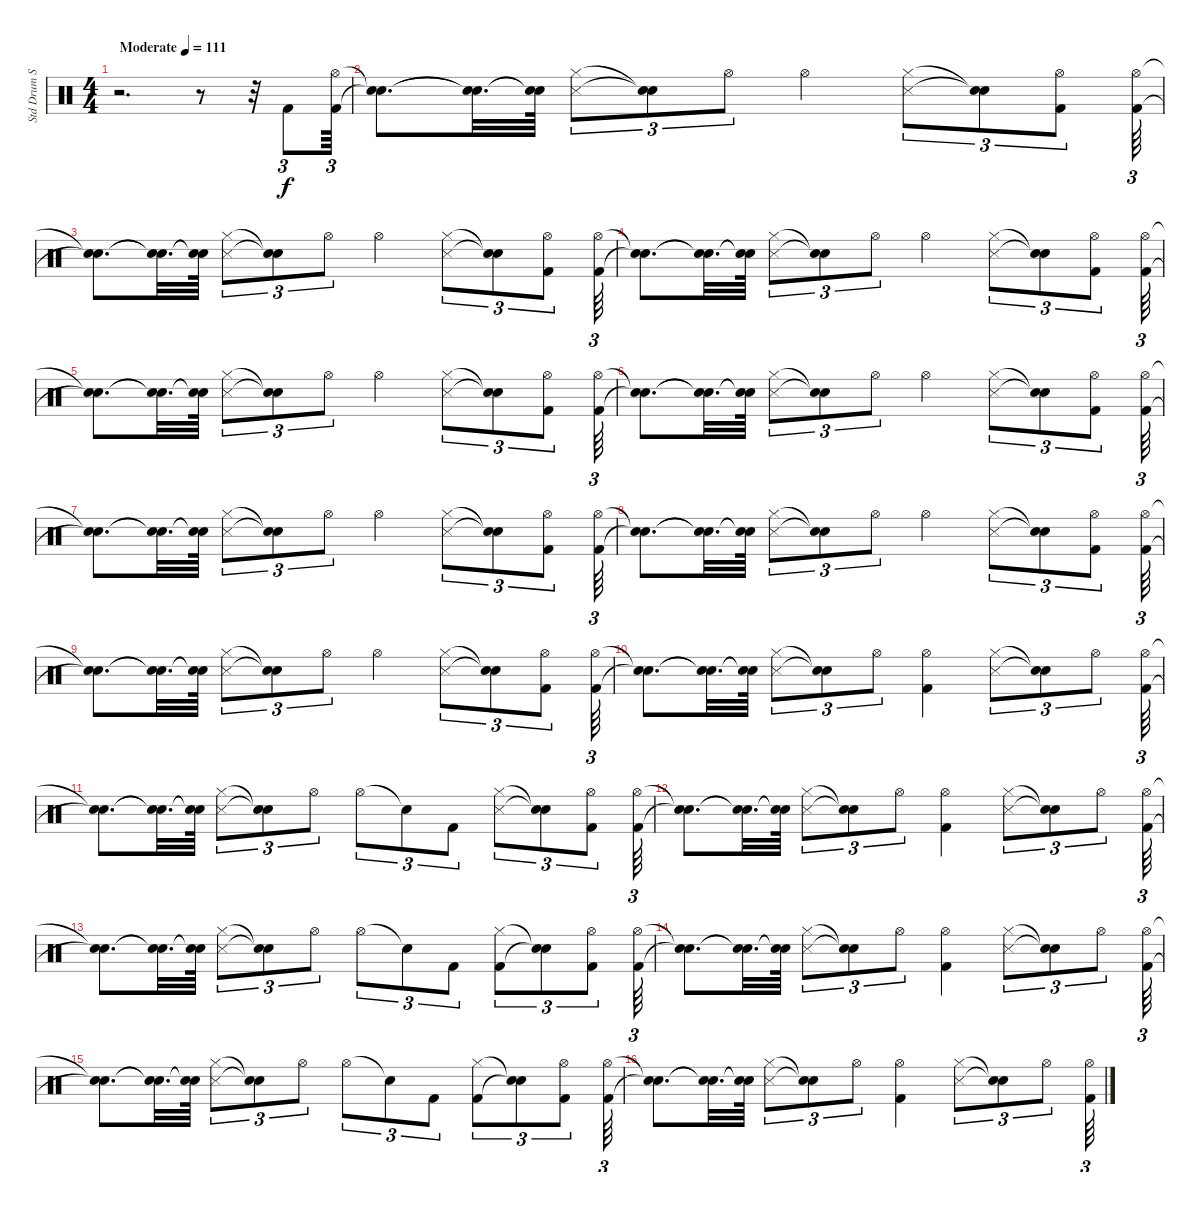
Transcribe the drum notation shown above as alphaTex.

\track ("Std Drum Set" "Std Drum S") {solo instrument percussion}
\staff {score}
\articulation defaults
\ts (4 4)
\tempo (111 "Moderate")
\clef neutral
\ks c
r.2{d dy f} r.8 r.32 "Kick (hit) 2".8{tu (3 2)} ("Kick (hit) 2" "Hi-Hat (open)").64{tu (3 2)} |
("Snare (hit)"{t} "Snare (hit)"{t}).8{d} ("Snare (hit)"{t} "Snare (hit)"{t}).32{d} ("Snare (hit)"{t} "Snare (hit)"{t}).64 ("Snare (side stick) 3" "Hi-Hat (closed)").8{tu (3 2)} ("Snare (hit)"{t} "Snare (hit)"{t}).8{tu (3 2)} "Hi-Hat (open)".8{tu (3 2)} "Hi-Hat (open)".4 ("Snare (side stick) 3" "Hi-Hat (closed)").8{tu (3 2)} ("Snare (hit)"{t} "Snare (hit)"{t}).8{tu (3 2)} ("Kick (hit) 2" "Hi-Hat (open)").8{tu (3 2)} ("Kick (hit) 2" "Hi-Hat (open)").64{tu (3 2)} |
("Snare (hit)"{t} "Snare (hit)"{t}).8{d} ("Snare (hit)"{t} "Snare (hit)"{t}).32{d} ("Snare (hit)"{t} "Snare (hit)"{t}).64 ("Snare (side stick) 3" "Hi-Hat (closed)").8{tu (3 2)} ("Snare (hit)"{t} "Snare (hit)"{t}).8{tu (3 2)} "Hi-Hat (open)".8{tu (3 2)} "Hi-Hat (open)".4 ("Snare (side stick) 3" "Hi-Hat (closed)").8{tu (3 2)} ("Snare (hit)"{t} "Snare (hit)"{t}).8{tu (3 2)} ("Kick (hit) 2" "Hi-Hat (open)").8{tu (3 2)} ("Kick (hit) 2" "Hi-Hat (open)").64{tu (3 2)} |
("Snare (hit)"{t} "Snare (hit)"{t}).8{d} ("Snare (hit)"{t} "Snare (hit)"{t}).32{d} ("Snare (hit)"{t} "Snare (hit)"{t}).64 ("Snare (side stick) 3" "Hi-Hat (closed)").8{tu (3 2)} ("Snare (hit)"{t} "Snare (hit)"{t}).8{tu (3 2)} "Hi-Hat (open)".8{tu (3 2)} "Hi-Hat (open)".4 ("Snare (side stick) 3" "Hi-Hat (closed)").8{tu (3 2)} ("Snare (hit)"{t} "Snare (hit)"{t}).8{tu (3 2)} ("Kick (hit) 2" "Hi-Hat (open)").8{tu (3 2)} ("Kick (hit) 2" "Hi-Hat (open)").64{tu (3 2)} |
("Snare (hit)"{t} "Snare (hit)"{t}).8{d} ("Snare (hit)"{t} "Snare (hit)"{t}).32{d} ("Snare (hit)"{t} "Snare (hit)"{t}).64 ("Snare (side stick) 3" "Hi-Hat (closed)").8{tu (3 2)} ("Snare (hit)"{t} "Snare (hit)"{t}).8{tu (3 2)} "Hi-Hat (open)".8{tu (3 2)} "Hi-Hat (open)".4 ("Snare (side stick) 3" "Hi-Hat (closed)").8{tu (3 2)} ("Snare (hit)"{t} "Snare (hit)"{t}).8{tu (3 2)} ("Kick (hit) 2" "Hi-Hat (open)").8{tu (3 2)} ("Kick (hit) 2" "Hi-Hat (open)").64{tu (3 2)} |
("Snare (hit)"{t} "Snare (hit)"{t}).8{d} ("Snare (hit)"{t} "Snare (hit)"{t}).32{d} ("Snare (hit)"{t} "Snare (hit)"{t}).64 ("Snare (side stick) 3" "Hi-Hat (closed)").8{tu (3 2)} ("Snare (hit)"{t} "Snare (hit)"{t}).8{tu (3 2)} "Hi-Hat (open)".8{tu (3 2)} "Hi-Hat (open)".4 ("Snare (side stick) 3" "Hi-Hat (closed)").8{tu (3 2)} ("Snare (hit)"{t} "Snare (hit)"{t}).8{tu (3 2)} ("Kick (hit) 2" "Hi-Hat (open)").8{tu (3 2)} ("Kick (hit) 2" "Hi-Hat (open)").64{tu (3 2)} |
("Snare (hit)"{t} "Snare (hit)"{t}).8{d} ("Snare (hit)"{t} "Snare (hit)"{t}).32{d} ("Snare (hit)"{t} "Snare (hit)"{t}).64 ("Snare (side stick) 3" "Hi-Hat (closed)").8{tu (3 2)} ("Snare (hit)"{t} "Snare (hit)"{t}).8{tu (3 2)} "Hi-Hat (open)".8{tu (3 2)} "Hi-Hat (open)".4 ("Snare (side stick) 3" "Hi-Hat (closed)").8{tu (3 2)} ("Snare (hit)"{t} "Snare (hit)"{t}).8{tu (3 2)} ("Kick (hit) 2" "Hi-Hat (open)").8{tu (3 2)} ("Kick (hit) 2" "Hi-Hat (open)").64{tu (3 2)} |
("Snare (hit)"{t} "Snare (hit)"{t}).8{d} ("Snare (hit)"{t} "Snare (hit)"{t}).32{d} ("Snare (hit)"{t} "Snare (hit)"{t}).64 ("Snare (side stick) 3" "Hi-Hat (closed)").8{tu (3 2)} ("Snare (hit)"{t} "Snare (hit)"{t}).8{tu (3 2)} "Hi-Hat (open)".8{tu (3 2)} "Hi-Hat (open)".4 ("Snare (side stick) 3" "Hi-Hat (closed)").8{tu (3 2)} ("Snare (hit)"{t} "Snare (hit)"{t}).8{tu (3 2)} ("Kick (hit) 2" "Hi-Hat (open)").8{tu (3 2)} ("Kick (hit) 2" "Hi-Hat (open)").64{tu (3 2)} |
("Snare (hit)"{t} "Snare (hit)"{t}).8{d} ("Snare (hit)"{t} "Snare (hit)"{t}).32{d} ("Snare (hit)"{t} "Snare (hit)"{t}).64 ("Snare (side stick) 3" "Hi-Hat (closed)").8{tu (3 2)} ("Snare (hit)"{t} "Snare (hit)"{t}).8{tu (3 2)} "Hi-Hat (open)".8{tu (3 2)} "Hi-Hat (open)".4 ("Snare (side stick) 3" "Hi-Hat (closed)").8{tu (3 2)} ("Snare (hit)"{t} "Snare (hit)"{t}).8{tu (3 2)} ("Kick (hit) 2" "Hi-Hat (open)").8{tu (3 2)} ("Kick (hit) 2" "Hi-Hat (open)").64{tu (3 2)} |
("Snare (hit)"{t} "Snare (hit)"{t}).8{d} ("Snare (hit)"{t} "Snare (hit)"{t}).32{d} ("Snare (hit)"{t} "Snare (hit)"{t}).64 ("Snare (side stick) 3" "Hi-Hat (closed)").8{tu (3 2)} ("Snare (hit)"{t} "Snare (hit)"{t}).8{tu (3 2)} "Hi-Hat (open)".8{tu (3 2)} ("Kick (hit) 2" "Hi-Hat (open)").4 ("Snare (side stick) 3" "Hi-Hat (closed)").8{tu (3 2)} ("Snare (hit)"{t} "Snare (hit)"{t}).8{tu (3 2)} "Hi-Hat (open)".8{tu (3 2)} ("Kick (hit) 2" "Hi-Hat (open)").64{tu (3 2)} |
("Snare (hit)"{t} "Snare (hit)"{t}).8{d} ("Snare (hit)"{t} "Snare (hit)"{t}).32{d} ("Snare (hit)"{t} "Snare (hit)"{t}).64 ("Snare (side stick) 3" "Hi-Hat (closed)").8{tu (3 2)} ("Snare (hit)"{t} "Snare (hit)"{t}).8{tu (3 2)} "Hi-Hat (open)".8{tu (3 2)} "Hi-Hat (open)".8{tu (3 2)} "Snare (hit)"{t}.8{tu (3 2)} "Kick (hit) 2".8{tu (3 2)} ("Snare (side stick) 3" "Hi-Hat (closed)").8{tu (3 2)} ("Snare (hit)"{t} "Snare (hit)"{t}).8{tu (3 2)} ("Kick (hit) 2" "Hi-Hat (open)").8{tu (3 2)} ("Kick (hit) 2" "Hi-Hat (open)").64{tu (3 2)} |
("Snare (hit)"{t} "Snare (hit)"{t}).8{d} ("Snare (hit)"{t} "Snare (hit)"{t}).32{d} ("Snare (hit)"{t} "Snare (hit)"{t}).64 ("Snare (side stick) 3" "Hi-Hat (closed)").8{tu (3 2)} ("Snare (hit)"{t} "Snare (hit)"{t}).8{tu (3 2)} "Hi-Hat (open)".8{tu (3 2)} ("Kick (hit) 2" "Hi-Hat (open)").4 ("Snare (side stick) 3" "Hi-Hat (closed)").8{tu (3 2)} ("Snare (hit)"{t} "Snare (hit)"{t}).8{tu (3 2)} "Hi-Hat (open)".8{tu (3 2)} ("Kick (hit) 2" "Hi-Hat (open)").64{tu (3 2)} |
("Snare (hit)"{t} "Snare (hit)"{t}).8{d} ("Snare (hit)"{t} "Snare (hit)"{t}).32{d} ("Snare (hit)"{t} "Snare (hit)"{t}).64 ("Snare (side stick) 3" "Hi-Hat (closed)").8{tu (3 2)} ("Snare (hit)"{t} "Snare (hit)"{t}).8{tu (3 2)} "Hi-Hat (open)".8{tu (3 2)} "Hi-Hat (open)".8{tu (3 2)} "Snare (hit)"{t}.8{tu (3 2)} "Kick (hit) 2".8{tu (3 2)} ("Kick (hit) 2" "Hi-Hat (closed)").8{tu (3 2)} ("Snare (hit)"{t} "Snare (hit)"{t}).8{tu (3 2)} ("Kick (hit) 2" "Hi-Hat (open)").8{tu (3 2)} ("Kick (hit) 2" "Hi-Hat (open)").64{tu (3 2)} |
("Snare (hit)"{t} "Snare (hit)"{t}).8{d} ("Snare (hit)"{t} "Snare (hit)"{t}).32{d} ("Snare (hit)"{t} "Snare (hit)"{t}).64 ("Snare (side stick) 3" "Hi-Hat (closed)").8{tu (3 2)} ("Snare (hit)"{t} "Snare (hit)"{t}).8{tu (3 2)} "Hi-Hat (open)".8{tu (3 2)} ("Kick (hit) 2" "Hi-Hat (open)").4 ("Snare (side stick) 3" "Hi-Hat (closed)").8{tu (3 2)} ("Snare (hit)"{t} "Snare (hit)"{t}).8{tu (3 2)} "Hi-Hat (open)".8{tu (3 2)} ("Kick (hit) 2" "Hi-Hat (open)").64{tu (3 2)} |
("Snare (hit)"{t} "Snare (hit)"{t}).8{d} ("Snare (hit)"{t} "Snare (hit)"{t}).32{d} ("Snare (hit)"{t} "Snare (hit)"{t}).64 ("Snare (side stick) 3" "Hi-Hat (closed)").8{tu (3 2)} ("Snare (hit)"{t} "Snare (hit)"{t}).8{tu (3 2)} "Hi-Hat (open)".8{tu (3 2)} "Hi-Hat (open)".8{tu (3 2)} "Snare (hit)"{t}.8{tu (3 2)} "Kick (hit) 2".8{tu (3 2)} ("Kick (hit) 2" "Hi-Hat (closed)").8{tu (3 2)} ("Snare (hit)"{t} "Snare (hit)"{t}).8{tu (3 2)} ("Kick (hit) 2" "Hi-Hat (open)").8{tu (3 2)} ("Kick (hit) 2" "Hi-Hat (open)").64{tu (3 2)} |
("Snare (hit)"{t} "Snare (hit)"{t}).8{d} ("Snare (hit)"{t} "Snare (hit)"{t}).32{d} ("Snare (hit)"{t} "Snare (hit)"{t}).64 ("Snare (side stick) 3" "Hi-Hat (closed)").8{tu (3 2)} ("Snare (hit)"{t} "Snare (hit)"{t}).8{tu (3 2)} "Hi-Hat (open)".8{tu (3 2)} ("Kick (hit) 2" "Hi-Hat (open)").4 ("Snare (side stick) 3" "Hi-Hat (closed)").8{tu (3 2)} ("Snare (hit)"{t} "Snare (hit)"{t}).8{tu (3 2)} "Hi-Hat (open)".8{tu (3 2)} ("Kick (hit) 2" "Hi-Hat (open)").64{tu (3 2)}
